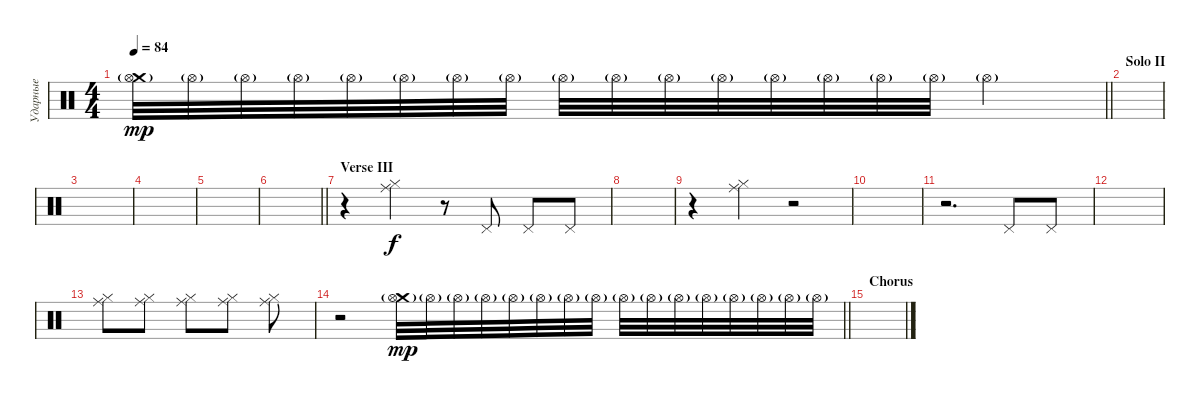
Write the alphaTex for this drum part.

\track ("Ударные" "Ударные") {instrument percussion}
\staff {score}
\articulation defaults
\ts (4 4)
\tempo 84
\clef neutral
\barLineRight lightlight
\ks c
("Crash medium (hit)"{g} "Hi-Hat (open)"{g}).32{dy mp volume 16} "Hi-Hat (open)"{g}.32 "Hi-Hat (open)"{g}.32 "Hi-Hat (open)"{g}.32 "Hi-Hat (open)"{g}.32 "Hi-Hat (open)"{g}.32 "Hi-Hat (open)"{g}.32 "Hi-Hat (open)"{g}.32 "Hi-Hat (open)"{g}.32 "Hi-Hat (open)"{g}.32 "Hi-Hat (open)"{g}.32 "Hi-Hat (open)"{g}.32 "Hi-Hat (open)"{g}.32 "Hi-Hat (open)"{g}.32 "Hi-Hat (open)"{g}.32 "Hi-Hat (open)"{g}.32 "Hi-Hat (open)"{g}.2 |
\section ("" "Solo II")
|
|
|
|
\barLineRight lightlight
|
\section ("" "Verse III")
r.4{volume 5} ("Ride (middle)" "Hi-Hat (closed)").4{dy f} r.8 "Pedal Hi-Hat (hit)".8 "Pedal Hi-Hat (hit)".8 "Pedal Hi-Hat (hit)".8 |
|
r.4 ("Ride (middle)" "Hi-Hat (closed)").4 r.2 |
|
r.2{d} "Pedal Hi-Hat (hit)".8 "Pedal Hi-Hat (hit)".8 |
|
("Ride (middle)" "Hi-Hat (closed)").8{bd 60 volume 3} ("Ride (middle)" "Hi-Hat (closed)").8{bd 60} ("Ride (middle)" "Hi-Hat (closed)").8 ("Ride (middle)" "Hi-Hat (closed)").8 ("Ride (middle)" "Hi-Hat (closed)").8 |
\barLineRight lightlight
r.2 ("Crash medium (hit)"{g} "Hi-Hat (open)"{g}).32{dy mp volume 16} "Hi-Hat (open)"{g}.32 "Hi-Hat (open)"{g}.32 "Hi-Hat (open)"{g}.32 "Hi-Hat (open)"{g}.32 "Hi-Hat (open)"{g}.32 "Hi-Hat (open)"{g}.32 "Hi-Hat (open)"{g}.32 "Hi-Hat (open)"{g}.32 "Hi-Hat (open)"{g}.32 "Hi-Hat (open)"{g}.32 "Hi-Hat (open)"{g}.32 "Hi-Hat (open)"{g}.32 "Hi-Hat (open)"{g}.32 "Hi-Hat (open)"{g}.32 "Hi-Hat (open)"{g}.32 |
\section ("" "Chorus")
